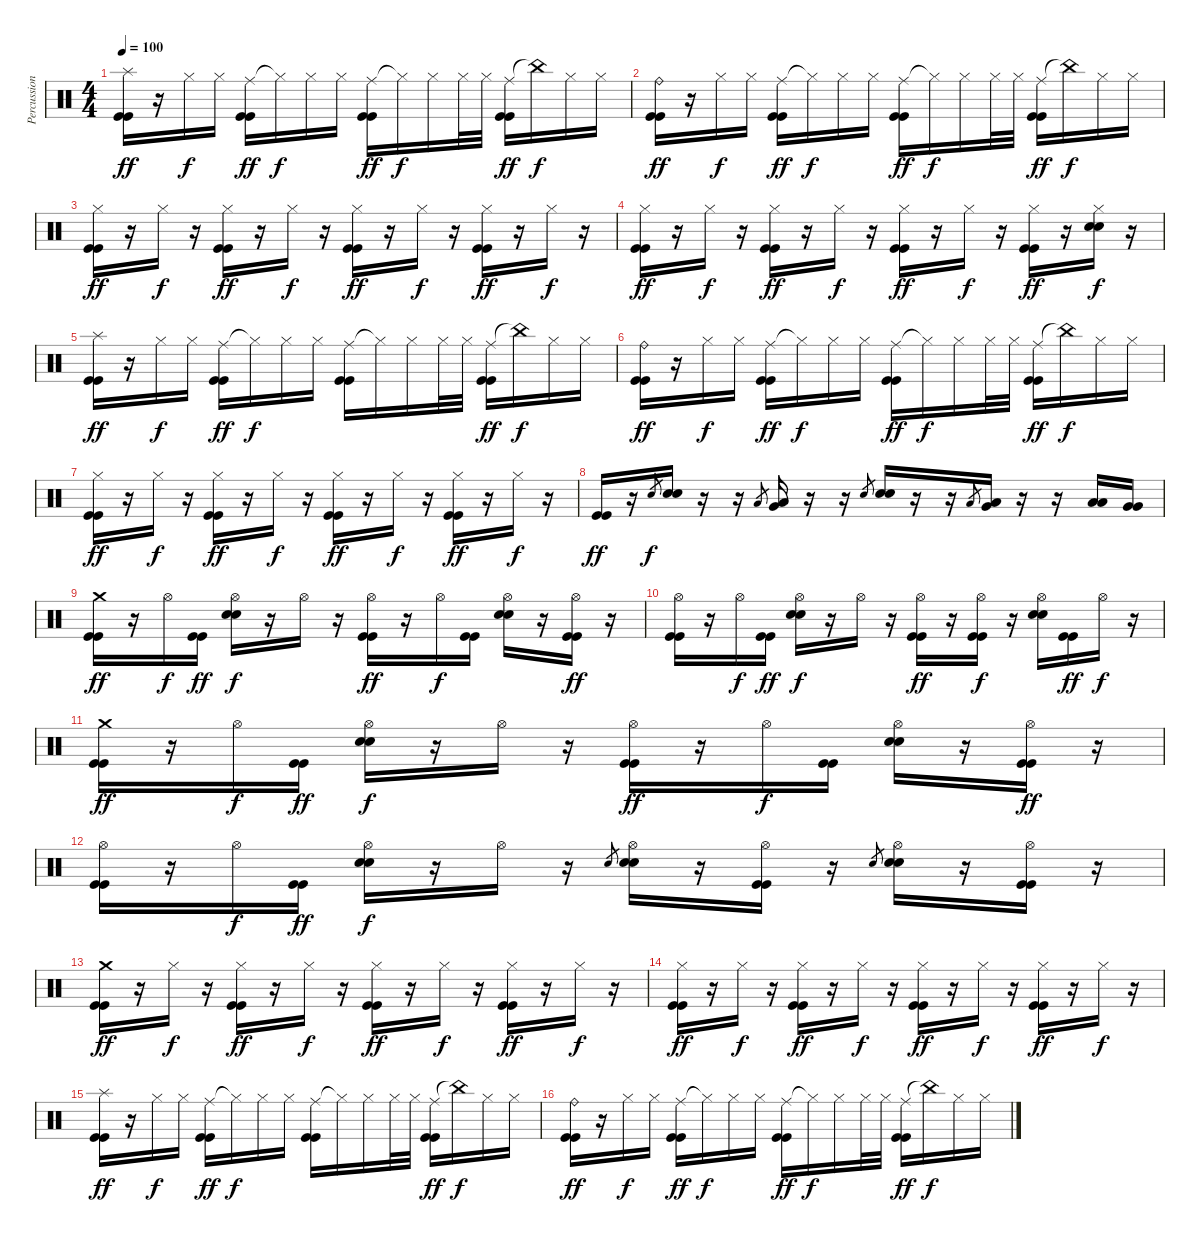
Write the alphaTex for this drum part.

\track ("Percussions" "Percussion") {instrument percussion}
\staff
\articulation defaults
\ts (4 4)
\tempo 100
\clef neutral
\ks c
("Splash (hit)" "Kick (hit)" "Kick (hit)").16{dy ff} r.16 "Hi-Hat (closed)".16{dy f} "Hi-Hat (closed)".16 ("Ride (middle)" "Kick (hit)" "Kick (hit)").16{dy ff} "Hi-Hat (closed)"{t}.16{dy f} "Hi-Hat (closed)".16 "Hi-Hat (closed)".16 ("Ride (middle)" "Kick (hit)" "Kick (hit)").16{dy ff} "Hi-Hat (closed)"{t}.16{dy f} "Hi-Hat (closed)".16 "Hi-Hat (closed)".32 "Hi-Hat (closed)".32 ("Ride (middle)" "Kick (hit)" "Kick (hit)").16{dy ff} "China (hit)"{t}.16{dy f} "Hi-Hat (closed)".16 "Hi-Hat (closed)".16 |
("Ride (bell)" "Kick (hit)" "Kick (hit)").16{dy ff} r.16 "Hi-Hat (closed)".16{dy f} "Hi-Hat (closed)".16 ("Ride (middle)" "Kick (hit)" "Kick (hit)").16{dy ff} "Hi-Hat (closed)"{t}.16{dy f} "Hi-Hat (closed)".16 "Hi-Hat (closed)".16 ("Ride (middle)" "Kick (hit)" "Kick (hit)").16{dy ff} "Hi-Hat (closed)"{t}.16{dy f} "Hi-Hat (closed)".16 "Hi-Hat (closed)".32 "Hi-Hat (closed)".32 ("Ride (middle)" "Kick (hit)" "Kick (hit)").16{dy ff} "China (hit)"{t}.16{dy f} "Hi-Hat (closed)".16 "Hi-Hat (closed)".16 |
("Hi-Hat (closed)" "Kick (hit)" "Kick (hit)").16{dy ff} r.16 "Hi-Hat (closed)".16{dy f} r.16 ("Hi-Hat (closed)" "Kick (hit)" "Kick (hit)").16{dy ff} r.16 "Hi-Hat (closed)".16{dy f} r.16 ("Hi-Hat (closed)" "Kick (hit)" "Kick (hit)").16{dy ff} r.16 "Hi-Hat (closed)".16{dy f} r.16 ("Hi-Hat (closed)" "Kick (hit)" "Kick (hit)").16{dy ff} r.16 "Hi-Hat (closed)".16{dy f} r.16 |
("Hi-Hat (closed)" "Kick (hit)" "Kick (hit)").16{dy ff} r.16 "Hi-Hat (closed)".16{dy f} r.16 ("Hi-Hat (closed)" "Kick (hit)" "Kick (hit)").16{dy ff} r.16 "Hi-Hat (closed)".16{dy f} r.16 ("Hi-Hat (closed)" "Kick (hit)" "Kick (hit)").16{dy ff} r.16 "Hi-Hat (closed)".16{dy f} r.16 ("Hi-Hat (closed)" "Kick (hit)" "Kick (hit)").16{dy ff} r.16 ("Hi-Hat (closed)" "Electric Snare (hit)" "Electric Snare (hit)").16{dy f} r.16 |
("Splash (hit)" "Kick (hit)" "Kick (hit)").16{dy ff} r.16 "Hi-Hat (closed)".16{dy f} "Hi-Hat (closed)".16 ("Ride (middle)" "Kick (hit)" "Kick (hit)").16{dy ff} "Hi-Hat (closed)"{t}.16{dy f} "Hi-Hat (closed)".16 "Hi-Hat (closed)".16 ("Ride (middle)" "Kick (hit)" "Kick (hit)").16 "Hi-Hat (closed)"{t}.16 "Hi-Hat (closed)".16 "Hi-Hat (closed)".32 "Hi-Hat (closed)".32 ("Ride (middle)" "Kick (hit)" "Kick (hit)").16{dy ff} "China (hit)"{t}.16{dy f} "Hi-Hat (closed)".16 "Hi-Hat (closed)".16 |
("Ride (bell)" "Kick (hit)" "Kick (hit)").16{dy ff} r.16 "Hi-Hat (closed)".16{dy f} "Hi-Hat (closed)".16 ("Ride (middle)" "Kick (hit)" "Kick (hit)").16{dy ff} "Hi-Hat (closed)"{t}.16{dy f} "Hi-Hat (closed)".16 "Hi-Hat (closed)".16 ("Ride (middle)" "Kick (hit)" "Kick (hit)").16{dy ff} "Hi-Hat (closed)"{t}.16{dy f} "Hi-Hat (closed)".16 "Hi-Hat (closed)".32 "Hi-Hat (closed)".32 ("Ride (middle)" "Kick (hit)" "Kick (hit)").16{dy ff} "China (hit)"{t}.16{dy f} "Hi-Hat (closed)".16 "Hi-Hat (closed)".16 |
("Hi-Hat (closed)" "Kick (hit)" "Kick (hit)").16{dy ff} r.16 "Hi-Hat (closed)".16{dy f} r.16 ("Hi-Hat (closed)" "Kick (hit)" "Kick (hit)").16{dy ff} r.16 "Hi-Hat (closed)".16{dy f} r.16 ("Hi-Hat (closed)" "Kick (hit)" "Kick (hit)").16{dy ff} r.16 "Hi-Hat (closed)".16{dy f} r.16 ("Hi-Hat (closed)" "Kick (hit)" "Kick (hit)").16{dy ff} r.16 "Hi-Hat (closed)".16{dy f} r.16 |
("Kick (hit)" "Kick (hit)").16{dy ff} r.16 "Electric Snare (hit)".8{gr dy f} ("Electric Snare (hit)" "Electric Snare (hit)").16 r.16 r.16 "Low Tom (hit)".8{gr} ("Low Tom (hit)" "Very Low Tom (hit)").16 r.16 r.16 "Electric Snare (hit)".8{gr} ("Electric Snare (hit)" "Electric Snare (hit)").16 r.16 r.16 "Low Tom (hit)".8{gr} ("Low Tom (hit)" "Very Low Tom (hit)").16 r.16 r.16 ("Low Tom (hit)" "Low Tom (hit)").16 ("Very Low Tom (hit)" "Very Low Tom (hit)").16 |
("Crash medium (hit)" "Kick (hit)" "Kick (hit)").16{dy ff} r.16 "Hi-Hat (open)".16{dy f} ("Kick (hit)" "Kick (hit)").16{dy ff} ("Hi-Hat (open)" "Electric Snare (hit)" "Electric Snare (hit)").16{dy f} r.16 "Hi-Hat (open)".16 r.16 ("Hi-Hat (open)" "Kick (hit)" "Kick (hit)").16{dy ff} r.16 "Hi-Hat (open)".16{dy f} ("Kick (hit)" "Kick (hit)").16 ("Hi-Hat (open)" "Electric Snare (hit)" "Electric Snare (hit)").16 r.16 ("Hi-Hat (open)" "Kick (hit)" "Kick (hit)").16{dy ff} r.16 |
("Hi-Hat (open)" "Kick (hit)" "Kick (hit)").16 r.16 "Hi-Hat (open)".16{dy f} ("Kick (hit)" "Kick (hit)").16{dy ff} ("Hi-Hat (open)" "Electric Snare (hit)" "Electric Snare (hit)").16{dy f} r.16 "Hi-Hat (open)".16 r.16 ("Hi-Hat (open)" "Kick (hit)" "Kick (hit)").16{dy ff} r.16 ("Hi-Hat (open)" "Kick (hit)" "Kick (hit)").16{dy f} r.16 ("Hi-Hat (open)" "Electric Snare (hit)" "Electric Snare (hit)").16 ("Kick (hit)" "Kick (hit)").16{dy ff} "Hi-Hat (open)".16{dy f} r.16 |
("Crash medium (hit)" "Kick (hit)" "Kick (hit)").16{dy ff} r.16 "Hi-Hat (open)".16{dy f} ("Kick (hit)" "Kick (hit)").16{dy ff} ("Hi-Hat (open)" "Electric Snare (hit)" "Electric Snare (hit)").16{dy f} r.16 "Hi-Hat (open)".16 r.16 ("Hi-Hat (open)" "Kick (hit)" "Kick (hit)").16{dy ff} r.16 "Hi-Hat (open)".16{dy f} ("Kick (hit)" "Kick (hit)").16 ("Hi-Hat (open)" "Electric Snare (hit)" "Electric Snare (hit)").16 r.16 ("Hi-Hat (open)" "Kick (hit)" "Kick (hit)").16{dy ff} r.16 |
("Hi-Hat (open)" "Kick (hit)" "Kick (hit)").16 r.16 "Hi-Hat (open)".16{dy f} ("Kick (hit)" "Kick (hit)").16{dy ff} ("Hi-Hat (open)" "Electric Snare (hit)" "Electric Snare (hit)").16{dy f} r.16 "Hi-Hat (open)".16 r.16 "Electric Snare (hit)".8{gr} ("Hi-Hat (open)" "Electric Snare (hit)" "Electric Snare (hit)").16 r.16 ("Hi-Hat (open)" "Kick (hit)" "Kick (hit)").16 r.16 "Electric Snare (hit)".8{gr} ("Hi-Hat (open)" "Electric Snare (hit)" "Electric Snare (hit)").16 r.16 ("Hi-Hat (open)" "Kick (hit)" "Kick (hit)").16 r.16 |
("Crash medium (hit)" "Kick (hit)" "Kick (hit)").16{dy ff} r.16 "Hi-Hat (closed)".16{dy f} r.16 ("Hi-Hat (closed)" "Kick (hit)" "Kick (hit)").16{dy ff} r.16 "Hi-Hat (closed)".16{dy f} r.16 ("Hi-Hat (closed)" "Kick (hit)" "Kick (hit)").16{dy ff} r.16 "Hi-Hat (closed)".16{dy f} r.16 ("Hi-Hat (closed)" "Kick (hit)" "Kick (hit)").16{dy ff} r.16 "Hi-Hat (closed)".16{dy f} r.16 |
("Hi-Hat (closed)" "Kick (hit)" "Kick (hit)").16{dy ff} r.16 "Hi-Hat (closed)".16{dy f} r.16 ("Hi-Hat (closed)" "Kick (hit)" "Kick (hit)").16{dy ff} r.16 "Hi-Hat (closed)".16{dy f} r.16 ("Hi-Hat (closed)" "Kick (hit)" "Kick (hit)").16{dy ff} r.16 "Hi-Hat (closed)".16{dy f} r.16 ("Hi-Hat (closed)" "Kick (hit)" "Kick (hit)").16{dy ff} r.16 "Hi-Hat (closed)".16{dy f} r.16 |
("Splash (hit)" "Kick (hit)" "Kick (hit)").16{dy ff} r.16 "Hi-Hat (closed)".16{dy f} "Hi-Hat (closed)".16 ("Ride (middle)" "Kick (hit)" "Kick (hit)").16{dy ff} "Hi-Hat (closed)"{t}.16{dy f} "Hi-Hat (closed)".16 "Hi-Hat (closed)".16 ("Ride (middle)" "Kick (hit)" "Kick (hit)").16 "Hi-Hat (closed)"{t}.16 "Hi-Hat (closed)".16 "Hi-Hat (closed)".32 "Hi-Hat (closed)".32 ("Ride (middle)" "Kick (hit)" "Kick (hit)").16{dy ff} "China (hit)"{t}.16{dy f} "Hi-Hat (closed)".16 "Hi-Hat (closed)".16 |
("Ride (bell)" "Kick (hit)" "Kick (hit)").16{dy ff} r.16 "Hi-Hat (closed)".16{dy f} "Hi-Hat (closed)".16 ("Ride (middle)" "Kick (hit)" "Kick (hit)").16{dy ff} "Hi-Hat (closed)"{t}.16{dy f} "Hi-Hat (closed)".16 "Hi-Hat (closed)".16 ("Ride (middle)" "Kick (hit)" "Kick (hit)").16{dy ff} "Hi-Hat (closed)"{t}.16{dy f} "Hi-Hat (closed)".16 "Hi-Hat (closed)".32 "Hi-Hat (closed)".32 ("Ride (middle)" "Kick (hit)" "Kick (hit)").16{dy ff} "China (hit)"{t}.16{dy f} "Hi-Hat (closed)".16 "Hi-Hat (closed)".16
